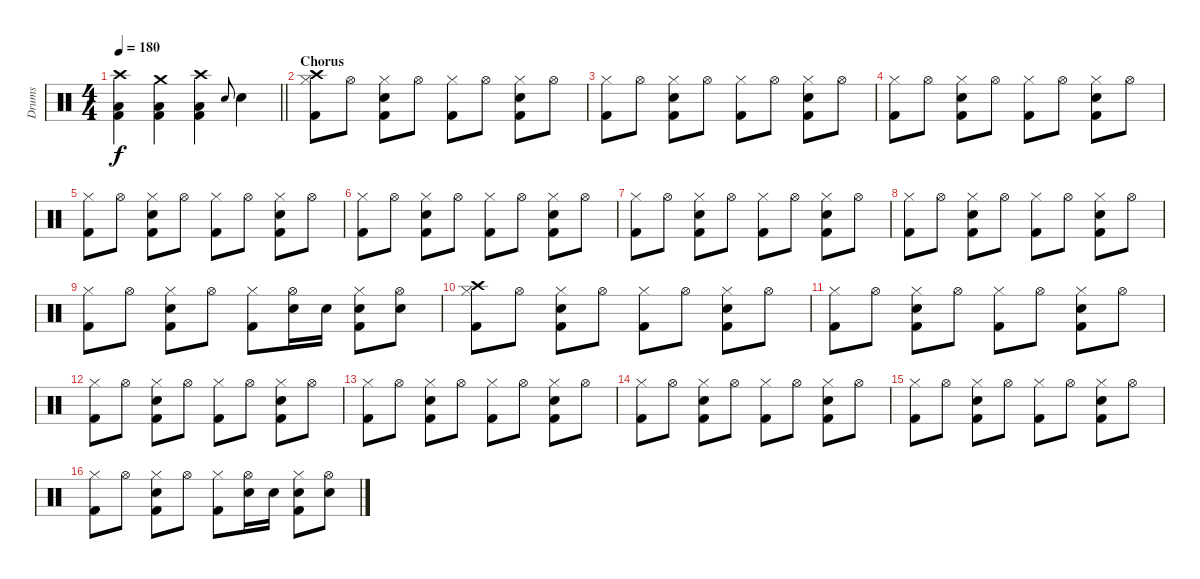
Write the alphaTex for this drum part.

\track ("Drums" "Drums") {instrument percussion}
\staff {score}
\articulation defaults
\ts (4 4)
\tempo 180
\clef neutral
\barLineRight lightlight
\ks c
("Crash high (hit)" "Low Floor Tom (hit)" "Kick (hit) 2").4{dy f} ("Crash medium (hit)" "Low Floor Tom (hit)" "Kick (hit) 2").4 ("Crash high (hit)" "Low Floor Tom (hit)" "Kick (hit) 2").4 "Snare (hit) 2".8{gr onbeat} "Snare (hit) 2".4 |
\section ("" "Chorus")
("Crash high (hit)" "Hi-Hat (closed)" "Kick (hit) 2").8 "Hi-Hat (open)".8 ("Hi-Hat (closed)" "Snare (hit) 2" "Kick (hit) 2").8 "Hi-Hat (open)".8 ("Hi-Hat (closed)" "Kick (hit) 2").8 "Hi-Hat (open)".8 ("Hi-Hat (closed)" "Snare (hit) 2" "Kick (hit) 2").8 "Hi-Hat (open)".8 |
("Hi-Hat (closed)" "Kick (hit) 2").8 "Hi-Hat (open)".8 ("Hi-Hat (closed)" "Snare (hit) 2" "Kick (hit) 2").8 "Hi-Hat (open)".8 ("Hi-Hat (closed)" "Kick (hit) 2").8 "Hi-Hat (open)".8 ("Hi-Hat (closed)" "Snare (hit) 2" "Kick (hit) 2").8 "Hi-Hat (open)".8 |
("Hi-Hat (closed)" "Kick (hit) 2").8 "Hi-Hat (open)".8 ("Hi-Hat (closed)" "Snare (hit) 2" "Kick (hit) 2").8 "Hi-Hat (open)".8 ("Hi-Hat (closed)" "Kick (hit) 2").8 "Hi-Hat (open)".8 ("Hi-Hat (closed)" "Snare (hit) 2" "Kick (hit) 2").8 "Hi-Hat (open)".8 |
("Hi-Hat (closed)" "Kick (hit) 2").8 "Hi-Hat (open)".8 ("Hi-Hat (closed)" "Snare (hit) 2" "Kick (hit) 2").8 "Hi-Hat (open)".8 ("Hi-Hat (closed)" "Kick (hit) 2").8 "Hi-Hat (open)".8 ("Hi-Hat (closed)" "Snare (hit) 2" "Kick (hit) 2").8 "Hi-Hat (open)".8 |
("Hi-Hat (closed)" "Kick (hit) 2").8 "Hi-Hat (open)".8 ("Hi-Hat (closed)" "Snare (hit) 2" "Kick (hit) 2").8 "Hi-Hat (open)".8 ("Hi-Hat (closed)" "Kick (hit) 2").8 "Hi-Hat (open)".8 ("Hi-Hat (closed)" "Snare (hit) 2" "Kick (hit) 2").8 "Hi-Hat (open)".8 |
("Hi-Hat (closed)" "Kick (hit) 2").8 "Hi-Hat (open)".8 ("Hi-Hat (closed)" "Snare (hit) 2" "Kick (hit) 2").8 "Hi-Hat (open)".8 ("Hi-Hat (closed)" "Kick (hit) 2").8 "Hi-Hat (open)".8 ("Hi-Hat (closed)" "Snare (hit) 2" "Kick (hit) 2").8 "Hi-Hat (open)".8 |
("Hi-Hat (closed)" "Kick (hit) 2").8 "Hi-Hat (open)".8 ("Hi-Hat (closed)" "Snare (hit) 2" "Kick (hit) 2").8 "Hi-Hat (open)".8 ("Hi-Hat (closed)" "Kick (hit) 2").8 "Hi-Hat (open)".8 ("Hi-Hat (closed)" "Snare (hit) 2" "Kick (hit) 2").8 "Hi-Hat (open)".8 |
("Hi-Hat (closed)" "Kick (hit) 2").8 "Hi-Hat (open)".8 ("Hi-Hat (closed)" "Snare (hit) 2" "Kick (hit) 2").8 "Hi-Hat (open)".8 ("Hi-Hat (closed)" "Kick (hit) 2").8 ("Hi-Hat (open)" "Snare (hit) 2").16 "Snare (hit) 2".16 ("Hi-Hat (closed)" "Snare (hit) 2" "Kick (hit) 2").8 ("Hi-Hat (open)" "Snare (hit) 2").8 |
("Crash high (hit)" "Hi-Hat (closed)" "Kick (hit) 2").8 "Hi-Hat (open)".8 ("Hi-Hat (closed)" "Snare (hit) 2" "Kick (hit) 2").8 "Hi-Hat (open)".8 ("Hi-Hat (closed)" "Kick (hit) 2").8 "Hi-Hat (open)".8 ("Hi-Hat (closed)" "Snare (hit) 2" "Kick (hit) 2").8 "Hi-Hat (open)".8 |
("Hi-Hat (closed)" "Kick (hit) 2").8 "Hi-Hat (open)".8 ("Hi-Hat (closed)" "Snare (hit) 2" "Kick (hit) 2").8 "Hi-Hat (open)".8 ("Hi-Hat (closed)" "Kick (hit) 2").8 "Hi-Hat (open)".8 ("Hi-Hat (closed)" "Snare (hit) 2" "Kick (hit) 2").8 "Hi-Hat (open)".8 |
("Hi-Hat (closed)" "Kick (hit) 2").8 "Hi-Hat (open)".8 ("Hi-Hat (closed)" "Snare (hit) 2" "Kick (hit) 2").8 "Hi-Hat (open)".8 ("Hi-Hat (closed)" "Kick (hit) 2").8 "Hi-Hat (open)".8 ("Hi-Hat (closed)" "Snare (hit) 2" "Kick (hit) 2").8 "Hi-Hat (open)".8 |
("Hi-Hat (closed)" "Kick (hit) 2").8 "Hi-Hat (open)".8 ("Hi-Hat (closed)" "Snare (hit) 2" "Kick (hit) 2").8 "Hi-Hat (open)".8 ("Hi-Hat (closed)" "Kick (hit) 2").8 "Hi-Hat (open)".8 ("Hi-Hat (closed)" "Snare (hit) 2" "Kick (hit) 2").8 "Hi-Hat (open)".8 |
("Hi-Hat (closed)" "Kick (hit) 2").8 "Hi-Hat (open)".8 ("Hi-Hat (closed)" "Snare (hit) 2" "Kick (hit) 2").8 "Hi-Hat (open)".8 ("Hi-Hat (closed)" "Kick (hit) 2").8 "Hi-Hat (open)".8 ("Hi-Hat (closed)" "Snare (hit) 2" "Kick (hit) 2").8 "Hi-Hat (open)".8 |
("Hi-Hat (closed)" "Kick (hit) 2").8 "Hi-Hat (open)".8 ("Hi-Hat (closed)" "Snare (hit) 2" "Kick (hit) 2").8 "Hi-Hat (open)".8 ("Hi-Hat (closed)" "Kick (hit) 2").8 "Hi-Hat (open)".8 ("Hi-Hat (closed)" "Snare (hit) 2" "Kick (hit) 2").8 "Hi-Hat (open)".8 |
("Hi-Hat (closed)" "Kick (hit) 2").8 "Hi-Hat (open)".8 ("Hi-Hat (closed)" "Snare (hit) 2" "Kick (hit) 2").8 "Hi-Hat (open)".8 ("Hi-Hat (closed)" "Kick (hit) 2").8 ("Hi-Hat (open)" "Snare (hit) 2").16 "Snare (hit) 2".16 ("Hi-Hat (closed)" "Snare (hit) 2" "Kick (hit) 2").8 ("Hi-Hat (open)" "Snare (hit) 2").8
